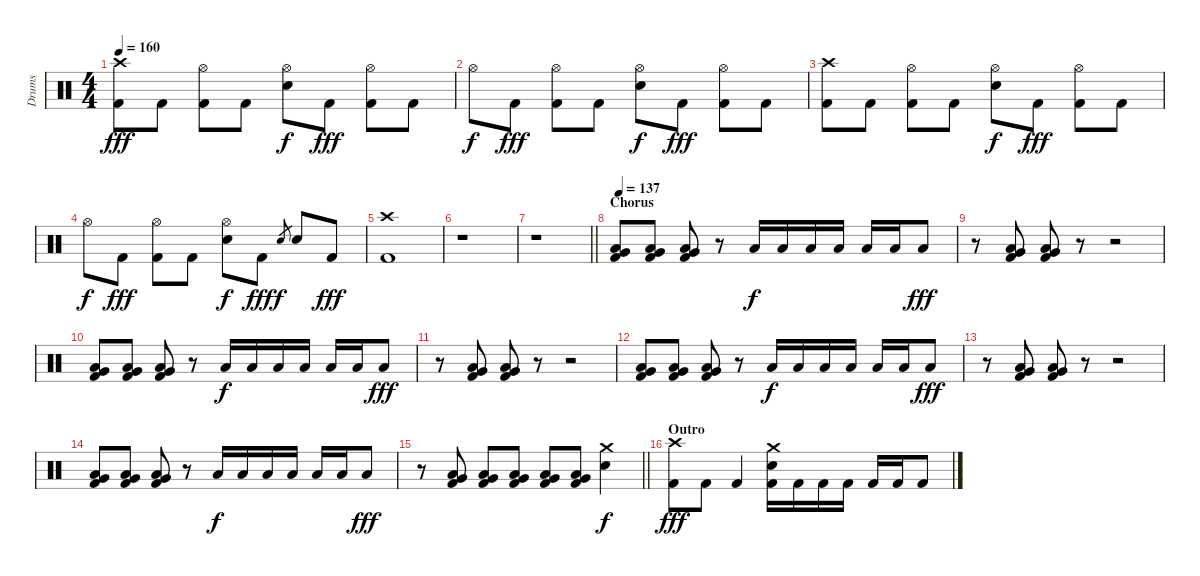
\track ("Drums" "Drums") {instrument percussion}
\staff {score}
\articulation defaults
\ts (4 4)
\tempo 160
\clef neutral
\ks c
("Crash high (hit)" "Kick (hit) 2").8{dy fff} "Kick (hit) 2".8 ("Hi-Hat (open)" "Kick (hit) 2").8 "Kick (hit) 2".8 ("Hi-Hat (open)" "Snare (hit) 2").8{dy f} "Kick (hit) 2".8{dy fff} ("Hi-Hat (open)" "Kick (hit) 2").8 "Kick (hit) 2".8 |
"Hi-Hat (open)".8{dy f} "Kick (hit) 2".8{dy fff} ("Hi-Hat (open)" "Kick (hit) 2").8 "Kick (hit) 2".8 ("Hi-Hat (open)" "Snare (hit) 2").8{dy f} "Kick (hit) 2".8{dy fff} ("Hi-Hat (open)" "Kick (hit) 2").8 "Kick (hit) 2".8 |
("Crash high (hit)" "Kick (hit) 2").8 "Kick (hit) 2".8 ("Hi-Hat (open)" "Kick (hit) 2").8 "Kick (hit) 2".8 ("Hi-Hat (open)" "Snare (hit) 2").8{dy f} "Kick (hit) 2".8{dy fff} ("Hi-Hat (open)" "Kick (hit) 2").8 "Kick (hit) 2".8 |
"Hi-Hat (open)".8{dy f} "Kick (hit) 2".8{dy fff} ("Hi-Hat (open)" "Kick (hit) 2").8 "Kick (hit) 2".8 ("Hi-Hat (open)" "Snare (hit) 2").8{dy f} "Kick (hit) 2".8{dy fff} "Snare (hit) 2".8{gr dy f} "Snare (hit) 2".8 "Kick (hit) 2".8{dy fff} |
("Crash high (hit)" "Kick (hit) 2").1 |
r.1 |
\barLineRight lightlight
r.1 |
\section ("" "Chorus")
\tempo 137
("Very Low Tom (hit)" "Low Floor Tom (hit)" "Kick (hit) 2").8 ("Very Low Tom (hit)" "Low Floor Tom (hit)" "Kick (hit) 2").8 ("Very Low Tom (hit)" "Low Floor Tom (hit)" "Kick (hit) 2").8 r.8 "Low Floor Tom (hit)".16{dy f} "Low Floor Tom (hit)".16 "Low Floor Tom (hit)".16 "Low Floor Tom (hit)".16 "Low Floor Tom (hit)".16 "Low Floor Tom (hit)".16 "Low Floor Tom (hit)".8{dy fff} |
r.8 ("Very Low Tom (hit)" "Low Floor Tom (hit)" "Kick (hit) 2").8 ("Very Low Tom (hit)" "Low Floor Tom (hit)" "Kick (hit) 2").8 r.8 r.2 |
("Very Low Tom (hit)" "Low Floor Tom (hit)" "Kick (hit) 2").8 ("Very Low Tom (hit)" "Low Floor Tom (hit)" "Kick (hit) 2").8 ("Very Low Tom (hit)" "Low Floor Tom (hit)" "Kick (hit) 2").8 r.8 "Low Floor Tom (hit)".16{dy f} "Low Floor Tom (hit)".16 "Low Floor Tom (hit)".16 "Low Floor Tom (hit)".16 "Low Floor Tom (hit)".16 "Low Floor Tom (hit)".16 "Low Floor Tom (hit)".8{dy fff} |
r.8 ("Very Low Tom (hit)" "Low Floor Tom (hit)" "Kick (hit) 2").8 ("Very Low Tom (hit)" "Low Floor Tom (hit)" "Kick (hit) 2").8 r.8 r.2 |
("Very Low Tom (hit)" "Low Floor Tom (hit)" "Kick (hit) 2").8 ("Very Low Tom (hit)" "Low Floor Tom (hit)" "Kick (hit) 2").8 ("Very Low Tom (hit)" "Low Floor Tom (hit)" "Kick (hit) 2").8 r.8 "Low Floor Tom (hit)".16{dy f} "Low Floor Tom (hit)".16 "Low Floor Tom (hit)".16 "Low Floor Tom (hit)".16 "Low Floor Tom (hit)".16 "Low Floor Tom (hit)".16 "Low Floor Tom (hit)".8{dy fff} |
r.8 ("Very Low Tom (hit)" "Low Floor Tom (hit)" "Kick (hit) 2").8 ("Very Low Tom (hit)" "Low Floor Tom (hit)" "Kick (hit) 2").8 r.8 r.2 |
("Very Low Tom (hit)" "Low Floor Tom (hit)" "Kick (hit) 2").8 ("Very Low Tom (hit)" "Low Floor Tom (hit)" "Kick (hit) 2").8 ("Very Low Tom (hit)" "Low Floor Tom (hit)" "Kick (hit) 2").8 r.8 "Low Floor Tom (hit)".16{dy f} "Low Floor Tom (hit)".16 "Low Floor Tom (hit)".16 "Low Floor Tom (hit)".16 "Low Floor Tom (hit)".16 "Low Floor Tom (hit)".16 "Low Floor Tom (hit)".8{dy fff} |
\barLineRight lightlight
r.8 ("Very Low Tom (hit)" "Low Floor Tom (hit)" "Kick (hit) 2").8 ("Very Low Tom (hit)" "Low Floor Tom (hit)" "Kick (hit) 2").8 ("Very Low Tom (hit)" "Low Floor Tom (hit)" "Kick (hit) 2").8 ("Very Low Tom (hit)" "Low Floor Tom (hit)" "Kick (hit) 2").8 ("Very Low Tom (hit)" "Low Floor Tom (hit)" "Kick (hit) 2").8 ("Crash medium (hit)" "Snare (hit) 2").4{dy f} |
\section ("" "Outro")
("Crash high (hit)" "Kick (hit) 2").8{dy fff} "Kick (hit) 2".8 "Kick (hit) 2".4 ("Crash medium (hit)" "Snare (hit) 2" "Kick (hit) 2").16 "Kick (hit) 2".16 "Kick (hit) 2".16 "Kick (hit) 2".16 "Kick (hit) 2".16 "Kick (hit) 2".16 "Kick (hit) 2".8
